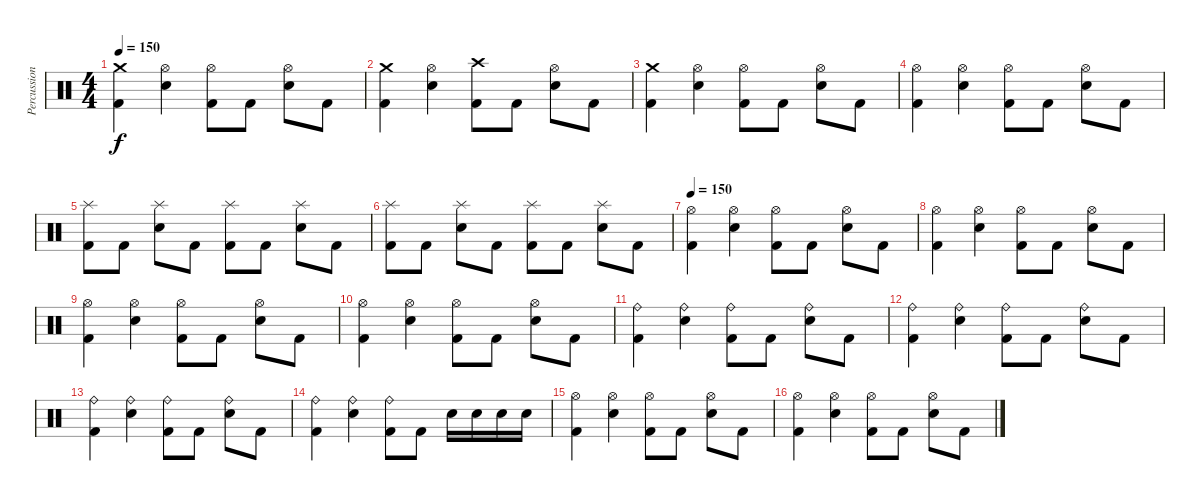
\track ("Percussions" "Percussion") {instrument percussion}
\staff {score}
\articulation defaults
\ts (4 4)
\tempo 150
\clef neutral
\ks c
("Kick (hit) 2" "Crash medium (hit)").4{dy f} ("Snare (hit) 2" "Hi-Hat (open)").4 ("Kick (hit) 2" "Hi-Hat (open)").8 "Kick (hit) 2".8 ("Snare (hit) 2" "Hi-Hat (open)").8 "Kick (hit) 2".8 |
("Kick (hit) 2" "Crash medium (hit)").4 ("Snare (hit) 2" "Hi-Hat (open)").4 ("Kick (hit) 2" "Crash high (hit)").8 "Kick (hit) 2".8 ("Snare (hit) 2" "Hi-Hat (open)").8 "Kick (hit) 2".8 |
("Kick (hit) 2" "Crash medium (hit)").4 ("Snare (hit) 2" "Hi-Hat (open)").4 ("Kick (hit) 2" "Hi-Hat (open)").8 "Kick (hit) 2".8 ("Snare (hit) 2" "Hi-Hat (open)").8 "Kick (hit) 2".8 |
("Kick (hit) 2" "Hi-Hat (open)").4 ("Snare (hit) 2" "Hi-Hat (open)").4 ("Kick (hit) 2" "Hi-Hat (open)").8 "Kick (hit) 2".8 ("Snare (hit) 2" "Hi-Hat (open)").8 "Kick (hit) 2".8 |
("Kick (hit) 2" "Splash (hit)").8 "Kick (hit) 2".8 ("Snare (hit) 2" "Splash (hit)").8 "Kick (hit) 2".8 ("Kick (hit) 2" "Splash (hit)").8 "Kick (hit) 2".8 ("Snare (hit) 2" "Splash (hit)").8 "Kick (hit) 2".8 |
("Kick (hit) 2" "Splash (hit)").8 "Kick (hit) 2".8 ("Snare (hit) 2" "Splash (hit)").8 "Kick (hit) 2".8 ("Kick (hit) 2" "Splash (hit)").8 "Kick (hit) 2".8 ("Snare (hit) 2" "Splash (hit)").8 "Kick (hit) 2".8 |
\tempo 150
("Kick (hit) 2" "Hi-Hat (open)").4 ("Snare (hit) 2" "Hi-Hat (open)").4 ("Kick (hit) 2" "Hi-Hat (open)").8 "Kick (hit) 2".8 ("Snare (hit) 2" "Hi-Hat (open)").8 "Kick (hit) 2".8 |
("Kick (hit) 2" "Hi-Hat (open)").4 ("Snare (hit) 2" "Hi-Hat (open)").4 ("Kick (hit) 2" "Hi-Hat (open)").8 "Kick (hit) 2".8 ("Snare (hit) 2" "Hi-Hat (open)").8 "Kick (hit) 2".8 |
("Kick (hit) 2" "Hi-Hat (open)").4 ("Snare (hit) 2" "Hi-Hat (open)").4 ("Kick (hit) 2" "Hi-Hat (open)").8 "Kick (hit) 2".8 ("Snare (hit) 2" "Hi-Hat (open)").8 "Kick (hit) 2".8 |
("Kick (hit) 2" "Hi-Hat (open)").4 ("Snare (hit) 2" "Hi-Hat (open)").4 ("Kick (hit) 2" "Hi-Hat (open)").8 "Kick (hit) 2".8 ("Snare (hit) 2" "Hi-Hat (open)").8 "Kick (hit) 2".8 |
("Kick (hit) 2" "Ride (bell)").4 ("Snare (hit) 2" "Ride (bell)").4 ("Kick (hit) 2" "Ride (bell)").8 "Kick (hit) 2".8 ("Snare (hit) 2" "Ride (bell)").8 "Kick (hit) 2".8 |
("Kick (hit) 2" "Ride (bell)").4 ("Snare (hit) 2" "Ride (bell)").4 ("Kick (hit) 2" "Ride (bell)").8 "Kick (hit) 2".8 ("Snare (hit) 2" "Ride (bell)").8 "Kick (hit) 2".8 |
("Kick (hit) 2" "Ride (bell)").4 ("Snare (hit) 2" "Ride (bell)").4 ("Kick (hit) 2" "Ride (bell)").8 "Kick (hit) 2".8 ("Snare (hit) 2" "Ride (bell)").8 "Kick (hit) 2".8 |
("Kick (hit) 2" "Ride (bell)").4 ("Snare (hit) 2" "Ride (bell)").4 ("Kick (hit) 2" "Ride (bell)").8 "Kick (hit) 2".8 "Snare (hit) 2".16 "Snare (hit) 2".16 "Snare (hit) 2".16 "Snare (hit) 2".16 |
("Kick (hit) 2" "Hi-Hat (open)").4 ("Snare (hit) 2" "Hi-Hat (open)").4 ("Kick (hit) 2" "Hi-Hat (open)").8 "Kick (hit) 2".8 ("Snare (hit) 2" "Hi-Hat (open)").8 "Kick (hit) 2".8 |
("Kick (hit) 2" "Hi-Hat (open)").4 ("Snare (hit) 2" "Hi-Hat (open)").4 ("Kick (hit) 2" "Hi-Hat (open)").8 "Kick (hit) 2".8 ("Snare (hit) 2" "Hi-Hat (open)").8 "Kick (hit) 2".8
